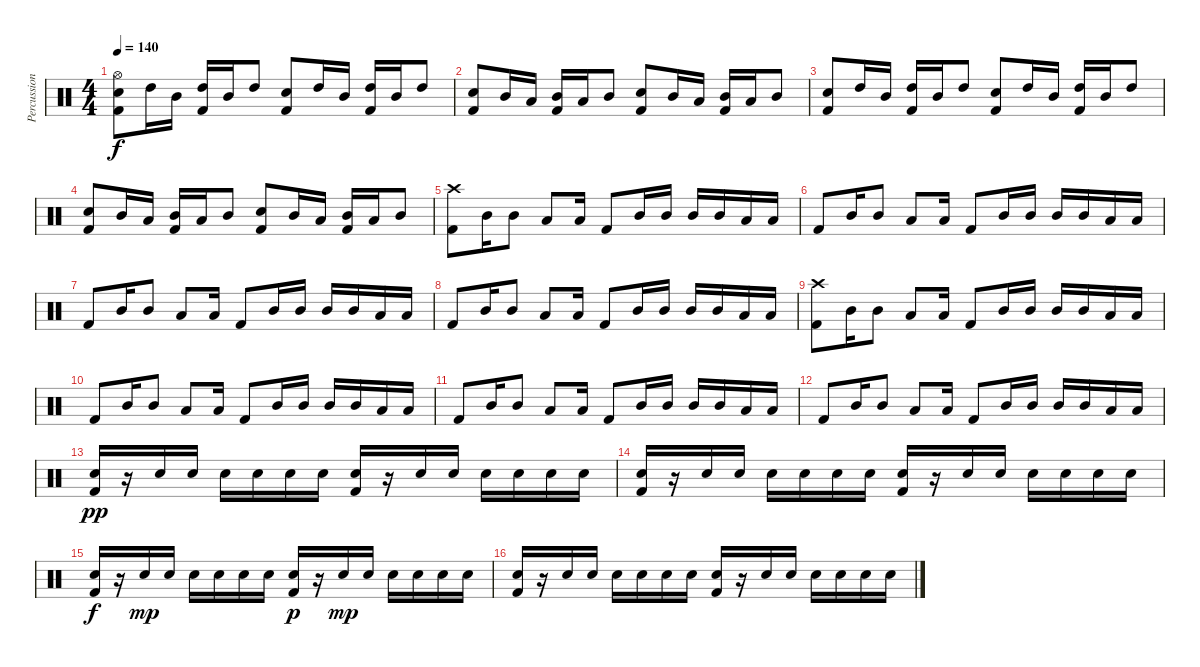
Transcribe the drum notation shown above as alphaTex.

\track ("Percussion" "Percussion") {instrument percussion}
\staff {score}
\articulation defaults
\ts (4 4)
\tempo 140
\clef neutral
\ks c
("Hi-Hat (open)" "Snare (hit) 2" "Kick (hit) 2").8{dy f} "High Tom (hit)".16 "Mid Tom (hit)".16 ("High Tom (hit)" "Kick (hit) 2").16 "Mid Tom (hit)".16 "High Tom (hit)".8 ("Snare (hit) 2" "Kick (hit) 2").8 "High Tom (hit)".16 "Mid Tom (hit)".16 ("High Tom (hit)" "Kick (hit) 2").16 "Mid Tom (hit)".16 "High Tom (hit)".8 |
("Snare (hit) 2" "Kick (hit) 2").8 "Mid Tom (hit)".16 "Low Tom (hit)".16 ("Mid Tom (hit)" "Kick (hit) 2").16 "Low Tom (hit)".16 "Mid Tom (hit)".8 ("Snare (hit) 2" "Kick (hit) 2").8 "Mid Tom (hit)".16 "Low Tom (hit)".16 ("Mid Tom (hit)" "Kick (hit) 2").16 "Low Tom (hit)".16 "Mid Tom (hit)".8 |
("Snare (hit) 2" "Kick (hit) 2").8 "High Tom (hit)".16 "Mid Tom (hit)".16 ("High Tom (hit)" "Kick (hit) 2").16 "Mid Tom (hit)".16 "High Tom (hit)".8 ("Snare (hit) 2" "Kick (hit) 2").8 "High Tom (hit)".16 "Mid Tom (hit)".16 ("High Tom (hit)" "Kick (hit) 2").16 "Mid Tom (hit)".16 "High Tom (hit)".8 |
("Snare (hit) 2" "Kick (hit) 2").8 "Mid Tom (hit)".16 "Low Tom (hit)".16 ("Mid Tom (hit)" "Kick (hit) 2").16 "Low Tom (hit)".16 "Mid Tom (hit)".8 ("Snare (hit) 2" "Kick (hit) 2").8 "Mid Tom (hit)".16 "Low Tom (hit)".16 ("Mid Tom (hit)" "Kick (hit) 2").16 "Low Tom (hit)".16 "Mid Tom (hit)".8 |
("Crash high (hit)" "Kick (hit) 2").8 "Mid Tom (hit)".16 "Mid Tom (hit)".8 "Low Tom (hit)".8 "Low Tom (hit)".16 "Kick (hit) 2".8 "Mid Tom (hit)".16 "Mid Tom (hit)".16 "Mid Tom (hit)".16 "Mid Tom (hit)".16 "Low Tom (hit)".16 "Low Tom (hit)".16 |
"Kick (hit) 2".8 "Mid Tom (hit)".16 "Mid Tom (hit)".8 "Low Tom (hit)".8 "Low Tom (hit)".16 "Kick (hit) 2".8 "Mid Tom (hit)".16 "Mid Tom (hit)".16 "Mid Tom (hit)".16 "Mid Tom (hit)".16 "Low Tom (hit)".16 "Low Tom (hit)".16 |
"Kick (hit) 2".8 "Mid Tom (hit)".16 "Mid Tom (hit)".8 "Low Tom (hit)".8 "Low Tom (hit)".16 "Kick (hit) 2".8 "Mid Tom (hit)".16 "Mid Tom (hit)".16 "Mid Tom (hit)".16 "Mid Tom (hit)".16 "Low Tom (hit)".16 "Low Tom (hit)".16 |
"Kick (hit) 2".8 "Mid Tom (hit)".16 "Mid Tom (hit)".8 "Low Tom (hit)".8 "Low Tom (hit)".16 "Kick (hit) 2".8 "Mid Tom (hit)".16 "Mid Tom (hit)".16 "Mid Tom (hit)".16 "Mid Tom (hit)".16 "Low Tom (hit)".16 "Low Tom (hit)".16 |
("Crash high (hit)" "Kick (hit) 2").8 "Mid Tom (hit)".16 "Mid Tom (hit)".8 "Low Tom (hit)".8 "Low Tom (hit)".16 "Kick (hit) 2".8 "Mid Tom (hit)".16 "Mid Tom (hit)".16 "Mid Tom (hit)".16 "Mid Tom (hit)".16 "Low Tom (hit)".16 "Low Tom (hit)".16 |
"Kick (hit) 2".8 "Mid Tom (hit)".16 "Mid Tom (hit)".8 "Low Tom (hit)".8 "Low Tom (hit)".16 "Kick (hit) 2".8 "Mid Tom (hit)".16 "Mid Tom (hit)".16 "Mid Tom (hit)".16 "Mid Tom (hit)".16 "Low Tom (hit)".16 "Low Tom (hit)".16 |
"Kick (hit) 2".8 "Mid Tom (hit)".16 "Mid Tom (hit)".8 "Low Tom (hit)".8 "Low Tom (hit)".16 "Kick (hit) 2".8 "Mid Tom (hit)".16 "Mid Tom (hit)".16 "Mid Tom (hit)".16 "Mid Tom (hit)".16 "Low Tom (hit)".16 "Low Tom (hit)".16 |
"Kick (hit) 2".8 "Mid Tom (hit)".16 "Mid Tom (hit)".8 "Low Tom (hit)".8 "Low Tom (hit)".16 "Kick (hit) 2".8 "Mid Tom (hit)".16 "Mid Tom (hit)".16 "Mid Tom (hit)".16 "Mid Tom (hit)".16 "Low Tom (hit)".16 "Low Tom (hit)".16 |
("Electric Snare (hit)" "Kick (hit) 2").16{dy pp} r.16 "Electric Snare (hit)".16 "Electric Snare (hit)".16 "Electric Snare (hit)".16 "Electric Snare (hit)".16 "Electric Snare (hit)".16 "Electric Snare (hit)".16 ("Electric Snare (hit)" "Kick (hit) 2").16 r.16 "Electric Snare (hit)".16 "Electric Snare (hit)".16 "Electric Snare (hit)".16 "Electric Snare (hit)".16 "Electric Snare (hit)".16 "Electric Snare (hit)".16 |
("Electric Snare (hit)" "Kick (hit) 2").16 r.16 "Electric Snare (hit)".16 "Electric Snare (hit)".16 "Electric Snare (hit)".16 "Electric Snare (hit)".16 "Electric Snare (hit)".16 "Electric Snare (hit)".16 ("Electric Snare (hit)" "Kick (hit) 2").16 r.16 "Electric Snare (hit)".16 "Electric Snare (hit)".16 "Electric Snare (hit)".16 "Electric Snare (hit)".16 "Electric Snare (hit)".16 "Electric Snare (hit)".16 |
("Electric Snare (hit)" "Kick (hit) 2").16{dy f} r.16 "Electric Snare (hit)".16{dy mp} "Electric Snare (hit)".16 "Electric Snare (hit)".16 "Electric Snare (hit)".16 "Electric Snare (hit)".16 "Electric Snare (hit)".16 ("Electric Snare (hit)" "Kick (hit) 2").16{dy p} r.16 "Electric Snare (hit)".16{dy mp} "Electric Snare (hit)".16 "Electric Snare (hit)".16 "Electric Snare (hit)".16 "Electric Snare (hit)".16 "Electric Snare (hit)".16 |
("Electric Snare (hit)" "Kick (hit) 2").16 r.16 "Electric Snare (hit)".16 "Electric Snare (hit)".16 "Electric Snare (hit)".16 "Electric Snare (hit)".16 "Electric Snare (hit)".16 "Electric Snare (hit)".16 ("Electric Snare (hit)" "Kick (hit) 2").16 r.16 "Electric Snare (hit)".16 "Electric Snare (hit)".16 "Electric Snare (hit)".16 "Electric Snare (hit)".16 "Electric Snare (hit)".16 "Electric Snare (hit)".16
